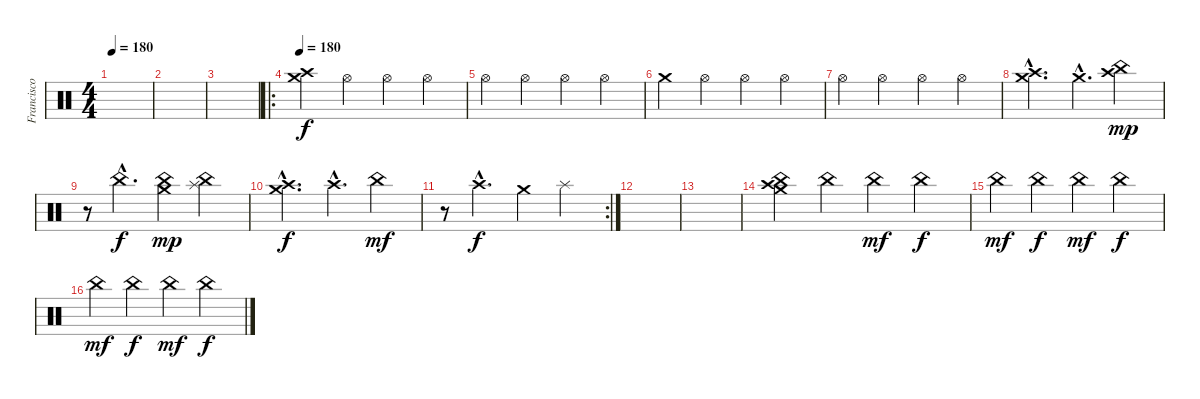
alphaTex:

\track ("Francisco Izquierdo (Percusión)" "Francisco ") {instrument percussion}
\staff {score}
\articulation defaults
\ts (4 4)
\tempo 180
\clef neutral
\ks c
|
|
|
\ro
\tempo 180
("Crash high (hit)" "Crash medium (hit)").4 "Hi-Hat (open)".4 "Hi-Hat (open)".4 "Hi-Hat (open)".4 |
"Hi-Hat (open)".4 "Hi-Hat (open)".4 "Hi-Hat (open)".4 "Hi-Hat (open)".4 |
"Crash medium (hit)".4 "Hi-Hat (open)".4 "Hi-Hat (open)".4 "Hi-Hat (open)".4 |
"Hi-Hat (open)".4 "Hi-Hat (open)".4 "Hi-Hat (open)".4 "Hi-Hat (open)".4 |
("Crash high (hit)"{hac} "Crash medium (hit)"{hac}).4{d} "Crash medium (hit)"{hac}.4{d} ("China (hit)" "Crash high (hit)").4{dy mp} |
r.8 "China (hit)"{hac}.4{d dy f} ("China (hit)" "Crash medium (hit)").4{dy mp} ("China (hit)" "Splash (hit)").4 |
("Crash high (hit)"{hac} "Crash medium (hit)"{hac}).4{d dy f} "Crash high (hit)"{hac}.4{d} "China (hit)".4{dy mf} |
\rc 2
r.8 "Crash high (hit)"{hac}.4{d dy f} "Crash medium (hit)".4 "Splash (hit)".4 |
|
|
("Crash high (hit)" "Crash medium (hit)" "China (hit)").4 "China (hit)".4 "China (hit)".4{dy mf} "China (hit)".4{dy f} |
"China (hit)".4{dy mf} "China (hit)".4{dy f} "China (hit)".4{dy mf} "China (hit)".4{dy f} |
"China (hit)".4{dy mf} "China (hit)".4{dy f} "China (hit)".4{dy mf} "China (hit)".4{dy f}
